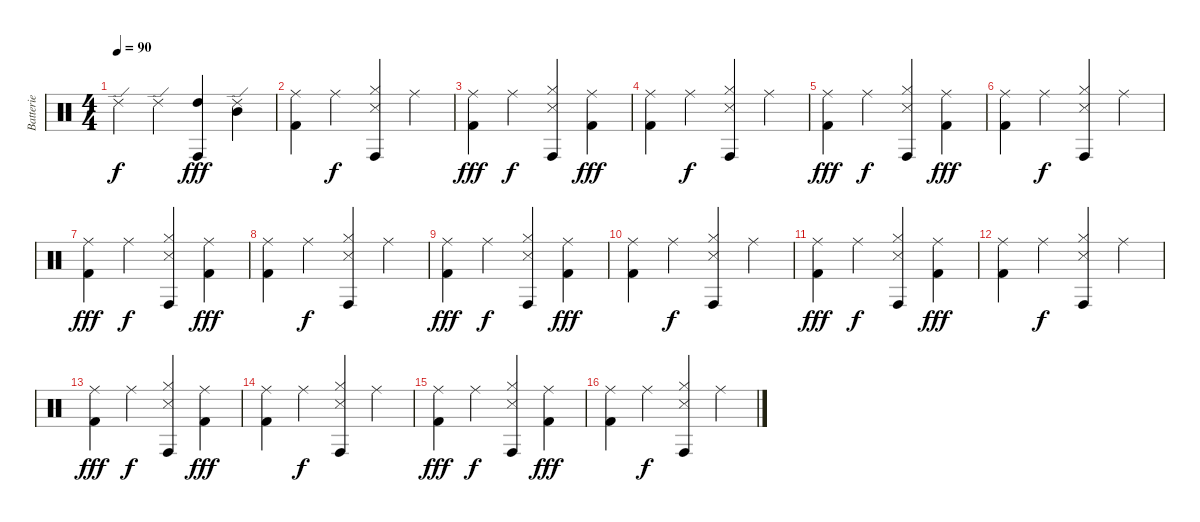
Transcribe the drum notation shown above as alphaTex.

\track ("Batterie" "Batterie") {instrument percussion}
\staff {score}
\articulation defaults
\ts (4 4)
\tempo 90
\clef neutral
\ks c "Ride (edge) 2".4{dy f} "Ride (edge) 2".4
("Conga high (hit)" "High Tom (hit)").4{dy fff} ("Ride (edge) 2" "Mid Tom (hit)").4 |
("Ride (middle)" "Kick (hit) 2").4 "Ride (middle)".4{dy f} ("Snare (side stick) 3" "Hi-Hat (closed)" "Conga high (hit)").4 "Ride (middle)".4 |
("Ride (middle)" "Kick (hit) 2").4{dy fff} "Ride (middle)".4{dy f} ("Snare (side stick) 3" "Hi-Hat (closed)" "Conga high (hit)").4 ("Ride (middle)" "Kick (hit) 2").4{dy fff} |
("Ride (middle)" "Kick (hit) 2").4 "Ride (middle)".4{dy f} ("Snare (side stick) 3" "Hi-Hat (closed)" "Conga high (hit)").4 "Ride (middle)".4 |
("Ride (middle)" "Kick (hit) 2").4{dy fff} "Ride (middle)".4{dy f} ("Snare (side stick) 3" "Hi-Hat (closed)" "Conga high (hit)").4 ("Ride (middle)" "Kick (hit) 2").4{dy fff} |
("Ride (middle)" "Kick (hit) 2").4 "Ride (middle)".4{dy f} ("Snare (side stick) 3" "Hi-Hat (closed)" "Conga high (hit)").4 "Ride (middle)".4 |
("Ride (middle)" "Kick (hit) 2").4{dy fff} "Ride (middle)".4{dy f} ("Snare (side stick) 3" "Hi-Hat (closed)" "Conga high (hit)").4 ("Ride (middle)" "Kick (hit) 2").4{dy fff} |
("Ride (middle)" "Kick (hit) 2").4 "Ride (middle)".4{dy f} ("Snare (side stick) 3" "Hi-Hat (closed)" "Conga high (hit)").4 "Ride (middle)".4 |
("Ride (middle)" "Kick (hit) 2").4{dy fff} "Ride (middle)".4{dy f} ("Snare (side stick) 3" "Hi-Hat (closed)" "Conga high (hit)").4 ("Ride (middle)" "Kick (hit) 2").4{dy fff} |
("Ride (middle)" "Kick (hit) 2").4 "Ride (middle)".4{dy f} ("Snare (side stick) 3" "Hi-Hat (closed)" "Conga high (hit)").4 "Ride (middle)".4 |
("Ride (middle)" "Kick (hit) 2").4{dy fff} "Ride (middle)".4{dy f} ("Snare (side stick) 3" "Hi-Hat (closed)" "Conga high (hit)").4 ("Ride (middle)" "Kick (hit) 2").4{dy fff} |
("Ride (middle)" "Kick (hit) 2").4 "Ride (middle)".4{dy f} ("Snare (side stick) 3" "Hi-Hat (closed)" "Conga high (hit)").4 "Ride (middle)".4 |
("Ride (middle)" "Kick (hit) 2").4{dy fff} "Ride (middle)".4{dy f} ("Snare (side stick) 3" "Hi-Hat (closed)" "Conga high (hit)").4 ("Ride (middle)" "Kick (hit) 2").4{dy fff} |
("Ride (middle)" "Kick (hit) 2").4 "Ride (middle)".4{dy f} ("Snare (side stick) 3" "Hi-Hat (closed)" "Conga high (hit)").4 "Ride (middle)".4 |
("Ride (middle)" "Kick (hit) 2").4{dy fff} "Ride (middle)".4{dy f} ("Snare (side stick) 3" "Hi-Hat (closed)" "Conga high (hit)").4 ("Ride (middle)" "Kick (hit) 2").4{dy fff} |
("Ride (middle)" "Kick (hit) 2").4 "Ride (middle)".4{dy f} ("Snare (side stick) 3" "Hi-Hat (closed)" "Conga high (hit)").4 "Ride (middle)".4
